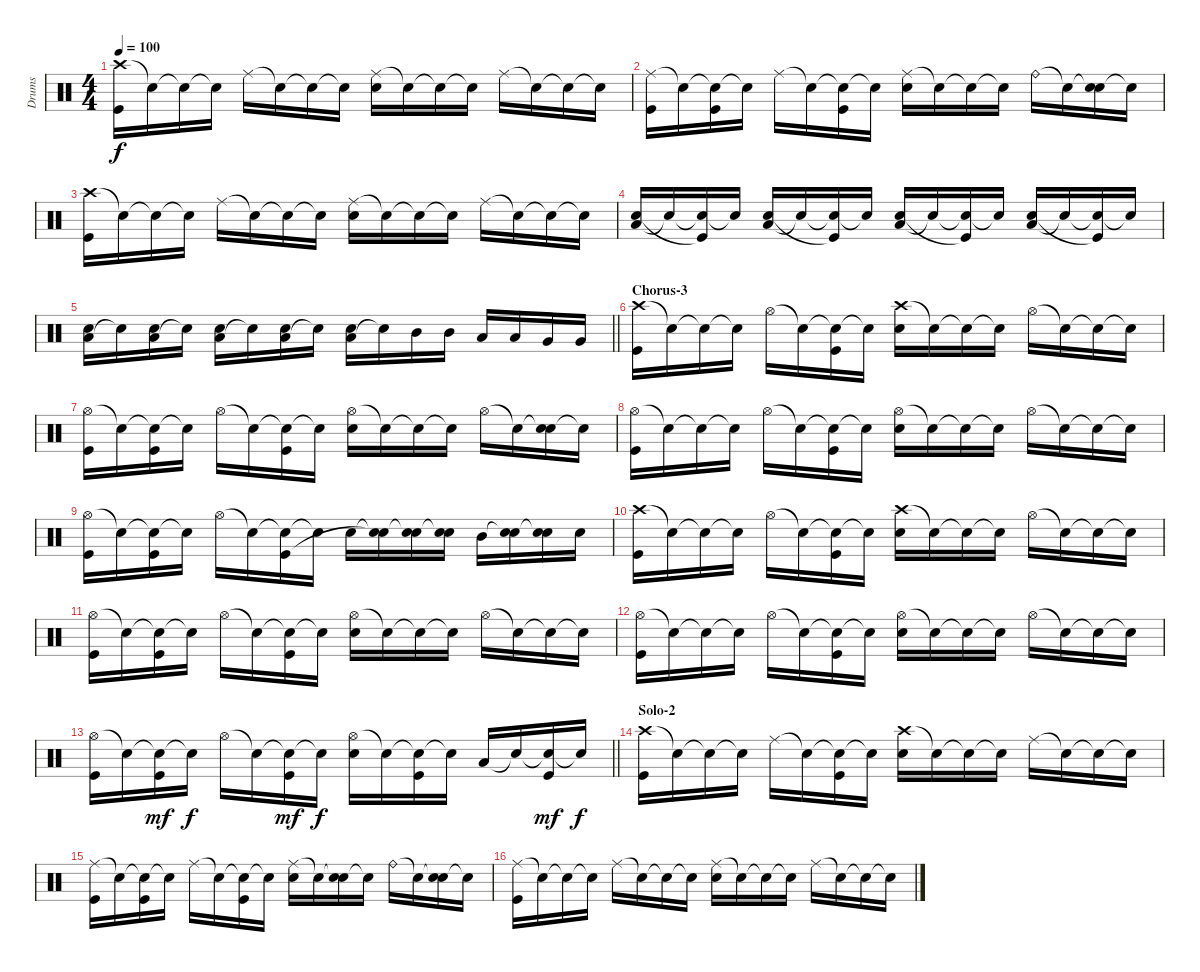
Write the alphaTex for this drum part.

\track ("Drums" "Drums") {instrument percussion}
\staff {score}
\articulation defaults
\ts (4 4)
\tempo 100
\clef neutral
\ks c
("Crash high (hit)" "Kick (hit)").16{dy f} "Snare (hit)"{t}.16 "Snare (hit)"{t}.16 "Snare (hit)"{t}.16 "Ride (middle)".16 "Snare (hit)"{t}.16 "Snare (hit)"{t}.16 "Snare (hit)"{t}.16 ("Ride (middle)" "Electric Snare (hit)").16 "Snare (hit)"{t}.16 "Snare (hit)"{t}.16 "Snare (hit)"{t}.16 "Ride (middle)".16 "Snare (hit)"{t}.16 "Snare (hit)"{t}.16 "Snare (hit)"{t}.16 |
("Ride (middle)" "Kick (hit)").16 "Snare (hit)"{t}.16 ("Snare (hit)"{t} "Kick (hit)").16 "Snare (hit)"{t}.16 "Ride (middle)".16 "Snare (hit)"{t}.16 ("Snare (hit)"{t} "Kick (hit)").16 "Snare (hit)"{t}.16 ("Ride (middle)" "Electric Snare (hit)").16 "Snare (hit)"{t}.16 "Snare (hit)"{t}.16 "Snare (hit)"{t}.16 "Ride (bell)".16 "Snare (hit)"{t}.16 ("Snare (hit)"{t} "Electric Snare (hit)").16 "Snare (hit)"{t}.16 |
("Crash high (hit)" "Kick (hit)").16 "Snare (hit)"{t}.16 "Snare (hit)"{t}.16 "Snare (hit)"{t}.16 "Ride (middle)".16 "Snare (hit)"{t}.16 "Snare (hit)"{t}.16 "Snare (hit)"{t}.16 ("Ride (middle)" "Electric Snare (hit)").16 "Snare (hit)"{t}.16 "Snare (hit)"{t}.16 "Snare (hit)"{t}.16 "Ride (middle)".16 "Snare (hit)"{t}.16 "Snare (hit)"{t}.16 "Snare (hit)"{t}.16 |
("Low Tom (hit)" "Electric Snare (hit)").16 "Snare (hit)"{t}.16 ("Snare (hit)"{t} "Kick (hit)"{t}).16 "Snare (hit)"{t}.16 ("Low Tom (hit)" "Electric Snare (hit)").16 "Snare (hit)"{t}.16 ("Snare (hit)"{t} "Kick (hit)"{t}).16 "Snare (hit)"{t}.16 ("Low Tom (hit)" "Electric Snare (hit)").16 "Snare (hit)"{t}.16 ("Snare (hit)"{t} "Kick (hit)"{t}).16 "Snare (hit)"{t}.16 ("Low Tom (hit)" "Electric Snare (hit)").16 "Snare (hit)"{t}.16 ("Snare (hit)"{t} "Kick (hit)"{t}).16 "Snare (hit)"{t}.16 |
\barLineRight lightlight
("Low Tom (hit)" "Electric Snare (hit)").16 "Snare (hit)"{t}.16 ("Low Tom (hit)" "Electric Snare (hit)").16 "Snare (hit)"{t}.16 ("Low Tom (hit)" "Electric Snare (hit)").16 "Snare (hit)"{t}.16 ("Low Tom (hit)" "Electric Snare (hit)").16 "Snare (hit)"{t}.16 ("Low Tom (hit)" "Electric Snare (hit)").16 "Snare (hit)"{t}.16 "Mid Tom (hit)".16 "Mid Tom (hit)".16 "Low Tom (hit)".16 "Low Tom (hit)".16 "Very Low Tom (hit)".16 "Very Low Tom (hit)".16 |
\section ("" "Chorus-3")
("Crash high (hit)" "Kick (hit)").16 "Snare (hit)"{t}.16 "Snare (hit)"{t}.16 "Snare (hit)"{t}.16 "Hi-Hat (open)".16 "Snare (hit)"{t}.16 ("Snare (hit)"{t} "Kick (hit)").16 "Snare (hit)"{t}.16 ("Crash high (hit)" "Electric Snare (hit)").16 "Snare (hit)"{t}.16 "Snare (hit)"{t}.16 "Snare (hit)"{t}.16 "Hi-Hat (open)".16 "Snare (hit)"{t}.16 "Snare (hit)"{t}.16 "Snare (hit)"{t}.16 |
("Hi-Hat (open)" "Kick (hit)").16 "Snare (hit)"{t}.16 ("Snare (hit)"{t} "Kick (hit)").16 "Snare (hit)"{t}.16 "Hi-Hat (open)".16 "Snare (hit)"{t}.16 ("Snare (hit)"{t} "Kick (hit)").16 "Snare (hit)"{t}.16 ("Hi-Hat (open)" "Electric Snare (hit)").16 "Snare (hit)"{t}.16 "Snare (hit)"{t}.16 "Snare (hit)"{t}.16 "Hi-Hat (open)".16 "Snare (hit)"{t}.16 ("Snare (hit)"{t} "Electric Snare (hit)").16 "Snare (hit)"{t}.16 |
("Hi-Hat (open)" "Kick (hit)").16 "Snare (hit)"{t}.16 "Snare (hit)"{t}.16 "Snare (hit)"{t}.16 "Hi-Hat (open)".16 "Snare (hit)"{t}.16 ("Snare (hit)"{t} "Kick (hit)").16 "Snare (hit)"{t}.16 ("Hi-Hat (open)" "Electric Snare (hit)").16 "Snare (hit)"{t}.16 "Snare (hit)"{t}.16 "Snare (hit)"{t}.16 "Hi-Hat (open)".16 "Snare (hit)"{t}.16 "Snare (hit)"{t}.16 "Snare (hit)"{t}.16 |
("Hi-Hat (open)" "Kick (hit)").16 "Snare (hit)"{t}.16 ("Snare (hit)"{t} "Kick (hit)").16 "Snare (hit)"{t}.16 "Hi-Hat (open)".16 "Snare (hit)"{t}.16 ("Snare (hit)"{t} "Kick (hit)").16 "Snare (hit)"{t}.16 "Electric Snare (hit)".16 ("Snare (hit)"{t} "Electric Snare (hit)"{t}).16 ("Snare (hit)"{t} "Electric Snare (hit)").16 ("Snare (hit)"{t} "Electric Snare (hit)").16 "Mid Tom (hit)".16 ("Snare (hit)"{t} "Electric Snare (hit)").16 ("Snare (hit)"{t} "Electric Snare (hit)").16 "Electric Snare (hit)".16 |
("Crash high (hit)" "Kick (hit)").16 "Snare (hit)"{t}.16 "Snare (hit)"{t}.16 "Snare (hit)"{t}.16 "Hi-Hat (open)".16 "Snare (hit)"{t}.16 ("Snare (hit)"{t} "Kick (hit)").16 "Snare (hit)"{t}.16 ("Crash high (hit)" "Electric Snare (hit)").16 "Snare (hit)"{t}.16 "Snare (hit)"{t}.16 "Snare (hit)"{t}.16 "Hi-Hat (open)".16 "Snare (hit)"{t}.16 "Snare (hit)"{t}.16 "Snare (hit)"{t}.16 |
("Hi-Hat (open)" "Kick (hit)").16 "Snare (hit)"{t}.16 ("Snare (hit)"{t} "Kick (hit)").16 "Snare (hit)"{t}.16 "Hi-Hat (open)".16 "Snare (hit)"{t}.16 ("Snare (hit)"{t} "Kick (hit)").16 "Snare (hit)"{t}.16 ("Hi-Hat (open)" "Electric Snare (hit)").16 "Snare (hit)"{t}.16 "Snare (hit)"{t}.16 "Snare (hit)"{t}.16 "Hi-Hat (open)".16 "Snare (hit)"{t}.16 "Snare (hit)"{t}.16 "Snare (hit)"{t}.16 |
("Hi-Hat (open)" "Kick (hit)").16 "Snare (hit)"{t}.16 "Snare (hit)"{t}.16 "Snare (hit)"{t}.16 "Hi-Hat (open)".16 "Snare (hit)"{t}.16 ("Snare (hit)"{t} "Kick (hit)").16 "Snare (hit)"{t}.16 ("Hi-Hat (open)" "Electric Snare (hit)").16 "Snare (hit)"{t}.16 "Snare (hit)"{t}.16 "Snare (hit)"{t}.16 "Hi-Hat (open)".16 "Snare (hit)"{t}.16 "Snare (hit)"{t}.16 "Snare (hit)"{t}.16 |
\barLineRight lightlight
("Hi-Hat (open)" "Kick (hit)").16 "Snare (hit)"{t}.16 ("Snare (hit)"{t} "Kick (hit)").16{dy mf} "Snare (hit)"{t}.16{dy f} "Hi-Hat (open)".16 "Snare (hit)"{t}.16 ("Snare (hit)"{t} "Kick (hit)").16{dy mf} "Snare (hit)"{t}.16{dy f} ("Hi-Hat (open)" "Electric Snare (hit)").16 "Snare (hit)"{t}.16 ("Snare (hit)"{t} "Kick (hit)").16 "Snare (hit)"{t}.16 "Low Tom (hit)".16 "Snare (hit)"{t}.16 ("Snare (hit)"{t} "Kick (hit)").16{dy mf} "Snare (hit)"{t}.16{dy f} |
\section ("" "Solo-2")
("Crash high (hit)" "Kick (hit)").16 "Snare (hit)"{t}.16 "Snare (hit)"{t}.16 "Snare (hit)"{t}.16 "Ride (middle)".16 "Snare (hit)"{t}.16 ("Snare (hit)"{t} "Kick (hit)").16 "Snare (hit)"{t}.16 ("Crash high (hit)" "Electric Snare (hit)").16 "Snare (hit)"{t}.16 "Snare (hit)"{t}.16 "Snare (hit)"{t}.16 "Ride (middle)".16 "Snare (hit)"{t}.16 "Snare (hit)"{t}.16 "Snare (hit)"{t}.16 |
("Ride (middle)" "Kick (hit)").16 "Snare (hit)"{t}.16 ("Snare (hit)"{t} "Kick (hit)").16 "Snare (hit)"{t}.16 "Ride (middle)".16 "Snare (hit)"{t}.16 ("Snare (hit)"{t} "Kick (hit)").16 "Snare (hit)"{t}.16 ("Ride (middle)" "Electric Snare (hit)").16 "Snare (hit)"{t}.16 ("Snare (hit)"{t} "Electric Snare (hit)").16 "Snare (hit)"{t}.16 "Ride (bell)".16 "Snare (hit)"{t}.16 ("Snare (hit)"{t} "Electric Snare (hit)").16 "Snare (hit)"{t}.16 |
("Ride (middle)" "Kick (hit)").16 "Snare (hit)"{t}.16 "Snare (hit)"{t}.16 "Snare (hit)"{t}.16 "Ride (middle)".16 "Snare (hit)"{t}.16 "Snare (hit)"{t}.16 "Snare (hit)"{t}.16 ("Ride (middle)" "Electric Snare (hit)").16 "Snare (hit)"{t}.16 "Snare (hit)"{t}.16 "Snare (hit)"{t}.16 "Ride (middle)".16 "Snare (hit)"{t}.16 "Snare (hit)"{t}.16 "Snare (hit)"{t}.16
